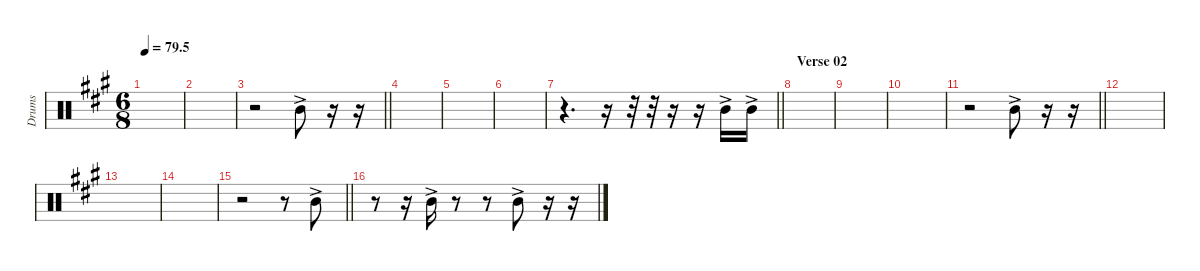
\defaultSystemsLayout 4
\hideDynamics
\bracketExtendMode nobrackets
\otherSystemsTrackNameOrientation horizontal
\track ("Tom 02" "Drums") {instrument percussion}
\staff {score}
\articulation defaults
\ts (6 8)
\tempo
79.5
\accidentals auto
\clef neutral
\ottava regular
\simile none
\scale
0.333333
\ks a
|
\scale
0.333333 |
\scale
0.333333
\barLineRight lightlight
r.2 "Mid Tom (hit)"{ac acc forcenatural}.8 r.16 r.16 |
\scale
0.333333 |
\scale
0.333333 |
\scale
0.333333 |
\scale
0.333333
\barLineRight lightlight
r.4{d} r.16 r.32 r.32 r.16 r.16 "Mid Tom (hit)"{ac acc forcenatural}.16 "Mid Tom (hit)"{ac acc forcenatural}.16 |
\section ("" "Verse 02")
\scale
0.333333 |
\scale
0.333333 |
\scale
0.333333 |
\scale
0.333333
\barLineRight lightlight
r.2 "Mid Tom (hit)"{ac acc forcenatural}.8 r.16 r.16 |
\scale
0.333333 |
\scale
0.333333 |
\scale
0.333333 |
\scale
0.333333
\barLineRight lightlight
r.2 r.8 "Mid Tom (hit)"{ac acc forcenatural}.8 |
\scale
0.333333 r.8 r.16 "Mid Tom (hit)"{ac acc forcenatural}.16 r.8 r.8 "Mid Tom (hit)"{ac acc forcenatural}.8 r.16 r.16
